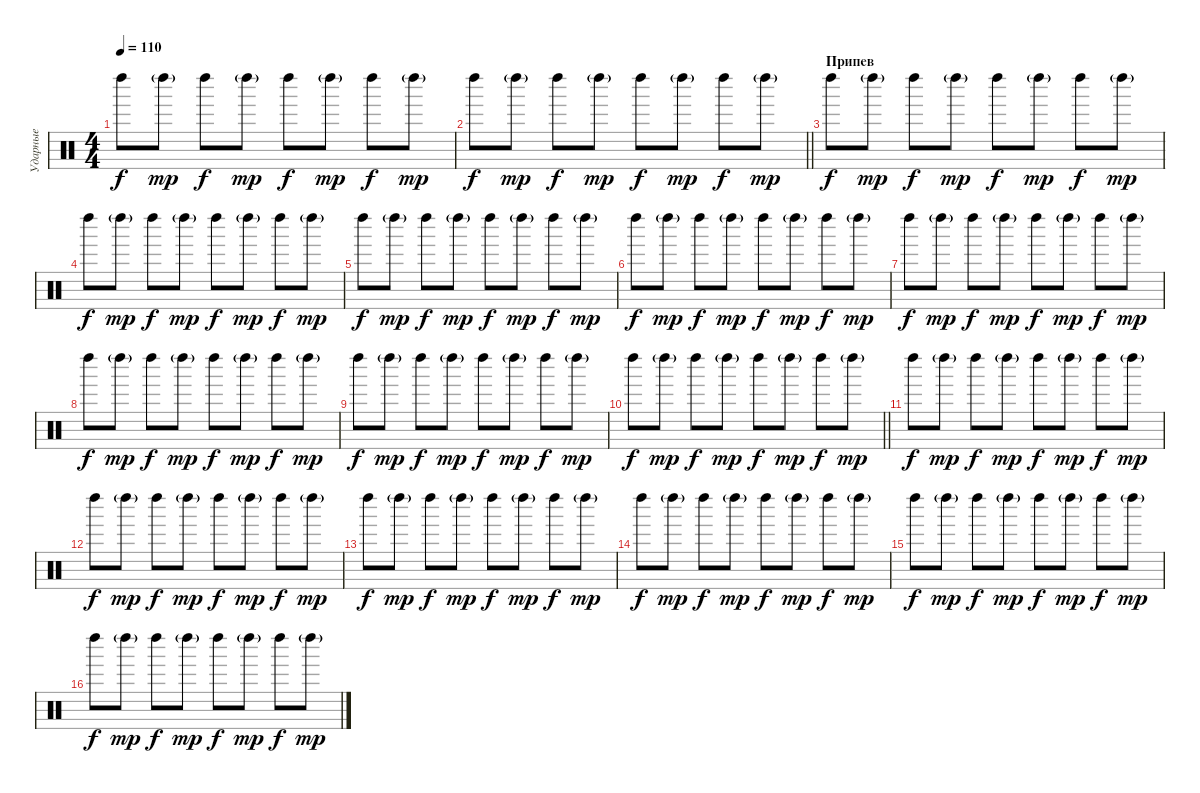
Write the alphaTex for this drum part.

\track ("Ударные" "Ударные") {instrument percussion}
\staff {score}
\articulation defaults
\ts (4 4)
\tempo 110
\clef neutral
\ks c "Left Maraca (hit)".8{dy f} "Left Maraca (hit)"{g}.8{dy mp} "Left Maraca (hit)".8{dy f} "Left Maraca (hit)"{g}.8{dy mp} "Left Maraca (hit)".8{dy f} "Left Maraca (hit)"{g}.8{dy mp} "Left Maraca (hit)".8{dy f} "Left Maraca (hit)"{g}.8{dy mp}
|
\barLineRight lightlight "Left Maraca (hit)".8{dy f} "Left Maraca (hit)"{g}.8{dy mp} "Left Maraca (hit)".8{dy f} "Left Maraca (hit)"{g}.8{dy mp} "Left Maraca (hit)".8{dy f} "Left Maraca (hit)"{g}.8{dy mp} "Left Maraca (hit)".8{dy f} "Left Maraca (hit)"{g}.8{dy mp}
|
\section ("" "Припев")
"Left Maraca (hit)".8{dy f} "Left Maraca (hit)"{g}.8{dy mp} "Left Maraca (hit)".8{dy f} "Left Maraca (hit)"{g}.8{dy mp} "Left Maraca (hit)".8{dy f} "Left Maraca (hit)"{g}.8{dy mp} "Left Maraca (hit)".8{dy f} "Left Maraca (hit)"{g}.8{dy mp} |
"Left Maraca (hit)".8{dy f} "Left Maraca (hit)"{g}.8{dy mp} "Left Maraca (hit)".8{dy f} "Left Maraca (hit)"{g}.8{dy mp} "Left Maraca (hit)".8{dy f} "Left Maraca (hit)"{g}.8{dy mp} "Left Maraca (hit)".8{dy f} "Left Maraca (hit)"{g}.8{dy mp} |
"Left Maraca (hit)".8{dy f} "Left Maraca (hit)"{g}.8{dy mp} "Left Maraca (hit)".8{dy f} "Left Maraca (hit)"{g}.8{dy mp} "Left Maraca (hit)".8{dy f} "Left Maraca (hit)"{g}.8{dy mp} "Left Maraca (hit)".8{dy f} "Left Maraca (hit)"{g}.8{dy mp} |
"Left Maraca (hit)".8{dy f} "Left Maraca (hit)"{g}.8{dy mp} "Left Maraca (hit)".8{dy f} "Left Maraca (hit)"{g}.8{dy mp} "Left Maraca (hit)".8{dy f} "Left Maraca (hit)"{g}.8{dy mp} "Left Maraca (hit)".8{dy f} "Left Maraca (hit)"{g}.8{dy mp} |
"Left Maraca (hit)".8{dy f} "Left Maraca (hit)"{g}.8{dy mp} "Left Maraca (hit)".8{dy f} "Left Maraca (hit)"{g}.8{dy mp} "Left Maraca (hit)".8{dy f} "Left Maraca (hit)"{g}.8{dy mp} "Left Maraca (hit)".8{dy f} "Left Maraca (hit)"{g}.8{dy mp} |
"Left Maraca (hit)".8{dy f} "Left Maraca (hit)"{g}.8{dy mp} "Left Maraca (hit)".8{dy f} "Left Maraca (hit)"{g}.8{dy mp} "Left Maraca (hit)".8{dy f} "Left Maraca (hit)"{g}.8{dy mp} "Left Maraca (hit)".8{dy f} "Left Maraca (hit)"{g}.8{dy mp} |
"Left Maraca (hit)".8{dy f} "Left Maraca (hit)"{g}.8{dy mp} "Left Maraca (hit)".8{dy f} "Left Maraca (hit)"{g}.8{dy mp} "Left Maraca (hit)".8{dy f} "Left Maraca (hit)"{g}.8{dy mp} "Left Maraca (hit)".8{dy f} "Left Maraca (hit)"{g}.8{dy mp} |
\barLineRight lightlight "Left Maraca (hit)".8{dy f} "Left Maraca (hit)"{g}.8{dy mp} "Left Maraca (hit)".8{dy f} "Left Maraca (hit)"{g}.8{dy mp} "Left Maraca (hit)".8{dy f} "Left Maraca (hit)"{g}.8{dy mp} "Left Maraca (hit)".8{dy f} "Left Maraca (hit)"{g}.8{dy mp}
|
"Left Maraca (hit)".8{dy f} "Left Maraca (hit)"{g}.8{dy mp} "Left Maraca (hit)".8{dy f} "Left Maraca (hit)"{g}.8{dy mp} "Left Maraca (hit)".8{dy f} "Left Maraca (hit)"{g}.8{dy mp} "Left Maraca (hit)".8{dy f} "Left Maraca (hit)"{g}.8{dy mp} |
"Left Maraca (hit)".8{dy f} "Left Maraca (hit)"{g}.8{dy mp} "Left Maraca (hit)".8{dy f} "Left Maraca (hit)"{g}.8{dy mp} "Left Maraca (hit)".8{dy f} "Left Maraca (hit)"{g}.8{dy mp} "Left Maraca (hit)".8{dy f} "Left Maraca (hit)"{g}.8{dy mp} |
"Left Maraca (hit)".8{dy f} "Left Maraca (hit)"{g}.8{dy mp} "Left Maraca (hit)".8{dy f} "Left Maraca (hit)"{g}.8{dy mp} "Left Maraca (hit)".8{dy f} "Left Maraca (hit)"{g}.8{dy mp} "Left Maraca (hit)".8{dy f} "Left Maraca (hit)"{g}.8{dy mp} |
"Left Maraca (hit)".8{dy f} "Left Maraca (hit)"{g}.8{dy mp} "Left Maraca (hit)".8{dy f} "Left Maraca (hit)"{g}.8{dy mp} "Left Maraca (hit)".8{dy f} "Left Maraca (hit)"{g}.8{dy mp} "Left Maraca (hit)".8{dy f} "Left Maraca (hit)"{g}.8{dy mp} |
"Left Maraca (hit)".8{dy f} "Left Maraca (hit)"{g}.8{dy mp} "Left Maraca (hit)".8{dy f} "Left Maraca (hit)"{g}.8{dy mp} "Left Maraca (hit)".8{dy f} "Left Maraca (hit)"{g}.8{dy mp} "Left Maraca (hit)".8{dy f} "Left Maraca (hit)"{g}.8{dy mp} |
"Left Maraca (hit)".8{dy f} "Left Maraca (hit)"{g}.8{dy mp} "Left Maraca (hit)".8{dy f} "Left Maraca (hit)"{g}.8{dy mp} "Left Maraca (hit)".8{dy f} "Left Maraca (hit)"{g}.8{dy mp} "Left Maraca (hit)".8{dy f} "Left Maraca (hit)"{g}.8{dy mp}
